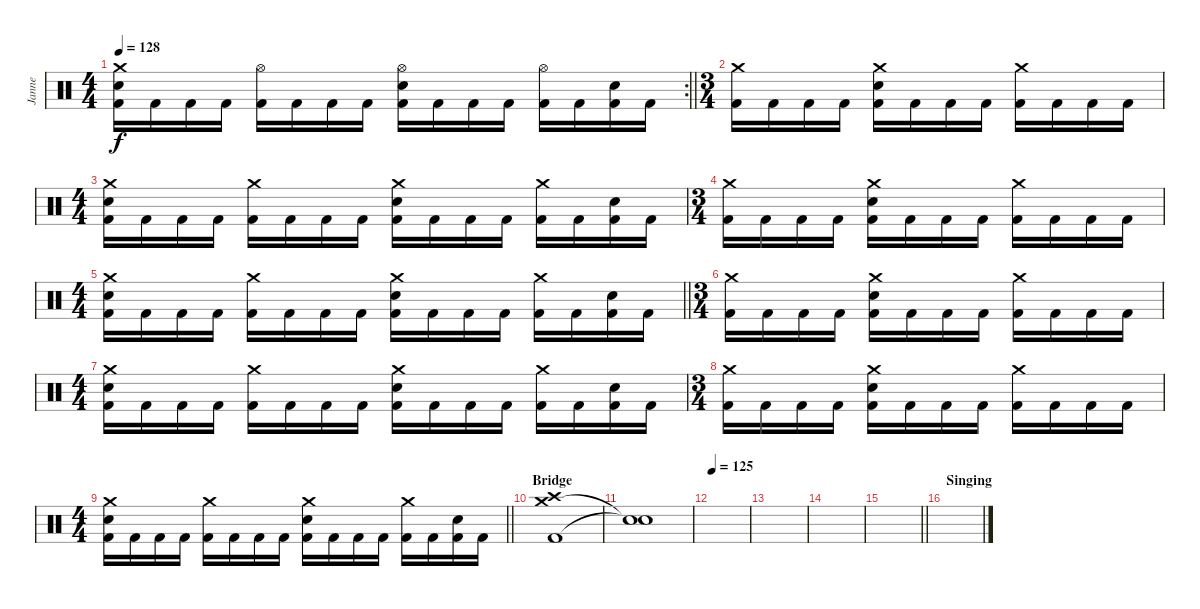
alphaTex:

\track ("Janne" "Janne") {instrument percussion}
\staff {score}
\articulation defaults
\rc 2
\ts (4 4)
\tempo 128
\clef neutral
\barLineRight lightlight
\ks c
("Kick (hit) 2" "Snare (hit) 2" "Crash medium (hit)").16{dy f} "Kick (hit) 2".16 "Kick (hit) 2".16 "Kick (hit) 2".16 ("Kick (hit) 2" "Hi-Hat (open)").16 "Kick (hit) 2".16 "Kick (hit) 2".16 "Kick (hit) 2".16 ("Kick (hit) 2" "Snare (hit) 2" "Hi-Hat (open)").16 "Kick (hit) 2".16 "Kick (hit) 2".16 "Kick (hit) 2".16 ("Kick (hit) 2" "Hi-Hat (open)").16 "Kick (hit) 2".16 ("Kick (hit) 2" "Snare (hit) 2").16 "Kick (hit) 2".16 |
\ts (3 4)
\section ("" "")
("Kick (hit) 2" "Crash medium (hit)").16 "Kick (hit) 2".16 "Kick (hit) 2".16 "Kick (hit) 2".16 ("Kick (hit) 2" "Snare (hit) 2" "Crash medium (hit)").16 "Kick (hit) 2".16 "Kick (hit) 2".16 "Kick (hit) 2".16 ("Kick (hit) 2" "Crash medium (hit)").16 "Kick (hit) 2".16 "Kick (hit) 2".16 "Kick (hit) 2".16 |
\ts (4 4)
("Kick (hit) 2" "Snare (hit) 2" "Crash medium (hit)").16 "Kick (hit) 2".16 "Kick (hit) 2".16 "Kick (hit) 2".16 ("Kick (hit) 2" "Crash medium (hit)").16 "Kick (hit) 2".16 "Kick (hit) 2".16 "Kick (hit) 2".16 ("Kick (hit) 2" "Snare (hit) 2" "Crash medium (hit)").16 "Kick (hit) 2".16 "Kick (hit) 2".16 "Kick (hit) 2".16 ("Kick (hit) 2" "Crash medium (hit)").16 "Kick (hit) 2".16 ("Kick (hit) 2" "Snare (hit) 2").16 "Kick (hit) 2".16 |
\ts (3 4)
("Kick (hit) 2" "Crash medium (hit)").16 "Kick (hit) 2".16 "Kick (hit) 2".16 "Kick (hit) 2".16 ("Kick (hit) 2" "Snare (hit) 2" "Crash medium (hit)").16 "Kick (hit) 2".16 "Kick (hit) 2".16 "Kick (hit) 2".16 ("Kick (hit) 2" "Crash medium (hit)").16 "Kick (hit) 2".16 "Kick (hit) 2".16 "Kick (hit) 2".16 |
\ts (4 4)
\barLineRight lightlight
("Kick (hit) 2" "Snare (hit) 2" "Crash medium (hit)").16 "Kick (hit) 2".16 "Kick (hit) 2".16 "Kick (hit) 2".16 ("Kick (hit) 2" "Crash medium (hit)").16 "Kick (hit) 2".16 "Kick (hit) 2".16 "Kick (hit) 2".16 ("Kick (hit) 2" "Snare (hit) 2" "Crash medium (hit)").16 "Kick (hit) 2".16 "Kick (hit) 2".16 "Kick (hit) 2".16 ("Kick (hit) 2" "Crash medium (hit)").16 "Kick (hit) 2".16 ("Kick (hit) 2" "Snare (hit) 2").16 "Kick (hit) 2".16 |
\ts (3 4)
\section ("" "")
("Kick (hit) 2" "Crash medium (hit)").16 "Kick (hit) 2".16 "Kick (hit) 2".16 "Kick (hit) 2".16 ("Kick (hit) 2" "Snare (hit) 2" "Crash medium (hit)").16 "Kick (hit) 2".16 "Kick (hit) 2".16 "Kick (hit) 2".16 ("Kick (hit) 2" "Crash medium (hit)").16 "Kick (hit) 2".16 "Kick (hit) 2".16 "Kick (hit) 2".16 |
\ts (4 4)
("Kick (hit) 2" "Snare (hit) 2" "Crash medium (hit)").16 "Kick (hit) 2".16 "Kick (hit) 2".16 "Kick (hit) 2".16 ("Kick (hit) 2" "Crash medium (hit)").16 "Kick (hit) 2".16 "Kick (hit) 2".16 "Kick (hit) 2".16 ("Kick (hit) 2" "Snare (hit) 2" "Crash medium (hit)").16 "Kick (hit) 2".16 "Kick (hit) 2".16 "Kick (hit) 2".16 ("Kick (hit) 2" "Crash medium (hit)").16 "Kick (hit) 2".16 ("Kick (hit) 2" "Snare (hit) 2").16 "Kick (hit) 2".16 |
\ts (3 4)
("Kick (hit) 2" "Crash medium (hit)").16 "Kick (hit) 2".16 "Kick (hit) 2".16 "Kick (hit) 2".16 ("Kick (hit) 2" "Snare (hit) 2" "Crash medium (hit)").16 "Kick (hit) 2".16 "Kick (hit) 2".16 "Kick (hit) 2".16 ("Kick (hit) 2" "Crash medium (hit)").16 "Kick (hit) 2".16 "Kick (hit) 2".16 "Kick (hit) 2".16 |
\ts (4 4)
\barLineRight lightlight
("Kick (hit) 2" "Snare (hit) 2" "Crash medium (hit)").16 "Kick (hit) 2".16 "Kick (hit) 2".16 "Kick (hit) 2".16 ("Kick (hit) 2" "Crash medium (hit)").16 "Kick (hit) 2".16 "Kick (hit) 2".16 "Kick (hit) 2".16 ("Kick (hit) 2" "Snare (hit) 2" "Crash medium (hit)").16 "Kick (hit) 2".16 "Kick (hit) 2".16 "Kick (hit) 2".16 ("Kick (hit) 2" "Crash medium (hit)").16 "Kick (hit) 2".16 ("Kick (hit) 2" "Snare (hit) 2").16 "Kick (hit) 2".16 |
\section ("" "Bridge")
("Kick (hit) 2" "Crash medium (hit)" "Crash high (hit)").1 |
("Snare (hit)"{t} "Snare (hit)"{t}).1 |
\tempo 125
|
|
|
\barLineRight lightlight
|
\section ("" "Singing")
